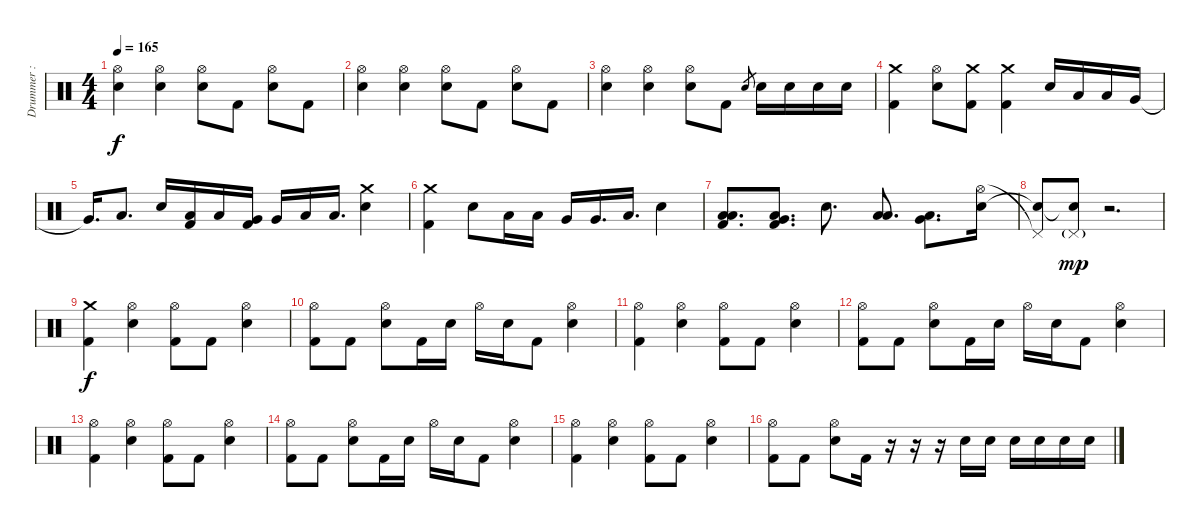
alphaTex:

\track ("Drummer : Tainaka Ritsu - Chan" "Drummer : ") {instrument percussion}
\staff {score}
\articulation defaults
\ts (4 4)
\tempo 165
\clef neutral
\ks c
("Hi-Hat (open)" "Electric Snare (hit)").4{dy f} ("Hi-Hat (open)" "Electric Snare (hit)").4 ("Hi-Hat (open)" "Electric Snare (hit)").8 "Kick (hit) 2".8 ("Hi-Hat (open)" "Electric Snare (hit)").8 "Kick (hit) 2".8 |
("Hi-Hat (open)" "Electric Snare (hit)").4 ("Hi-Hat (open)" "Electric Snare (hit)").4 ("Hi-Hat (open)" "Electric Snare (hit)").8 "Kick (hit) 2".8 ("Hi-Hat (open)" "Electric Snare (hit)").8 "Kick (hit) 2".8 |
("Hi-Hat (open)" "Electric Snare (hit)").4 ("Hi-Hat (open)" "Electric Snare (hit)").4 ("Hi-Hat (open)" "Electric Snare (hit)").8 "Kick (hit) 2".8 "Electric Snare (hit)".8{gr} "Electric Snare (hit)".16 "Electric Snare (hit)".16 "Electric Snare (hit)".16 "Electric Snare (hit)".16 |
("Crash medium (hit)" "Kick (hit) 2").4 ("Hi-Hat (open)" "Electric Snare (hit)").8 ("Crash medium (hit)" "Kick (hit) 2").8 ("Crash medium (hit)" "Kick (hit) 2").4 "Electric Snare (hit)".16 "Low Tom (hit)".16 "Low Tom (hit)".16 "Very Low Tom (hit)".16 |
"Very Low Tom (hit)"{t}.16{d} "Low Floor Tom (hit)".8{d} "Electric Snare (hit)".16 ("Low Tom (hit)" "Kick (hit) 2").16 "Low Tom (hit)".16 ("Very Low Tom (hit)" "Kick (hit) 2").16 "Very Low Tom (hit)".16 "Low Floor Tom (hit)".16 "Low Floor Tom (hit)".16{d} ("Crash medium (hit)" "Electric Snare (hit)").4 |
("Crash medium (hit)" "Kick (hit) 2").4 "Electric Snare (hit)".8 "Low Tom (hit)".16 "Low Tom (hit)".16 "Very Low Tom (hit)".16 "Very Low Tom (hit)".16{d} "Low Floor Tom (hit)".16{d} "Electric Snare (hit)".4 |
("Low Tom (hit)" "Low Floor Tom (hit)" "Kick (hit) 2").8{d} ("Very Low Tom (hit)" "Low Floor Tom (hit)" "Kick (hit) 2").8{d} "Electric Snare (hit)".8{d} ("Low Tom (hit)" "Low Floor Tom (hit)").8{d} ("Very Low Tom (hit)" "Low Floor Tom (hit)").8{d} ("Hi-Hat (open)" "Electric Snare (hit)").16 |
("Pedal Hi-Hat (hit)"{t} "Snare (hit)"{t}).8 ("Pedal Hi-Hat (hit)"{g} "Snare (hit)"{t}).8{dy mp} r.2{d} |
("Crash medium (hit)" "Kick (hit) 2").4{dy f} ("Hi-Hat (open)" "Electric Snare (hit)").4 ("Hi-Hat (open)" "Kick (hit) 2").8 "Kick (hit) 2".8 ("Hi-Hat (open)" "Electric Snare (hit)").4 |
("Hi-Hat (open)" "Kick (hit) 2").8 "Kick (hit) 2".8 ("Hi-Hat (open)" "Electric Snare (hit)").8 "Kick (hit) 2".16 "Electric Snare (hit)".16 "Hi-Hat (open)".16 "Electric Snare (hit)".16 "Kick (hit) 2".8 ("Hi-Hat (open)" "Electric Snare (hit)").4 |
("Hi-Hat (open)" "Kick (hit) 2").4 ("Hi-Hat (open)" "Electric Snare (hit)").4 ("Hi-Hat (open)" "Kick (hit) 2").8 "Kick (hit) 2".8 ("Hi-Hat (open)" "Electric Snare (hit)").4 |
("Hi-Hat (open)" "Kick (hit) 2").8 "Kick (hit) 2".8 ("Hi-Hat (open)" "Electric Snare (hit)").8 "Kick (hit) 2".16 "Electric Snare (hit)".16 "Hi-Hat (open)".16 "Electric Snare (hit)".16 "Kick (hit) 2".8 ("Hi-Hat (open)" "Electric Snare (hit)").4 |
("Hi-Hat (open)" "Kick (hit) 2").4 ("Hi-Hat (open)" "Electric Snare (hit)").4 ("Hi-Hat (open)" "Kick (hit) 2").8 "Kick (hit) 2".8 ("Hi-Hat (open)" "Electric Snare (hit)").4 |
("Hi-Hat (open)" "Kick (hit) 2").8 "Kick (hit) 2".8 ("Hi-Hat (open)" "Electric Snare (hit)").8 "Kick (hit) 2".16 "Electric Snare (hit)".16 "Hi-Hat (open)".16 "Electric Snare (hit)".16 "Kick (hit) 2".8 ("Hi-Hat (open)" "Electric Snare (hit)").4 |
("Hi-Hat (open)" "Kick (hit) 2").4 ("Hi-Hat (open)" "Electric Snare (hit)").4 ("Hi-Hat (open)" "Kick (hit) 2").8 "Kick (hit) 2".8 ("Hi-Hat (open)" "Electric Snare (hit)").4 |
("Hi-Hat (open)" "Kick (hit) 2").8 "Kick (hit) 2".8 ("Hi-Hat (open)" "Electric Snare (hit)").8 "Kick (hit) 2".16 r.16 r.16 r.16 "Electric Snare (hit)".16 "Electric Snare (hit)".16 "Electric Snare (hit)".16 "Electric Snare (hit)".16 "Electric Snare (hit)".16 "Electric Snare (hit)".16
